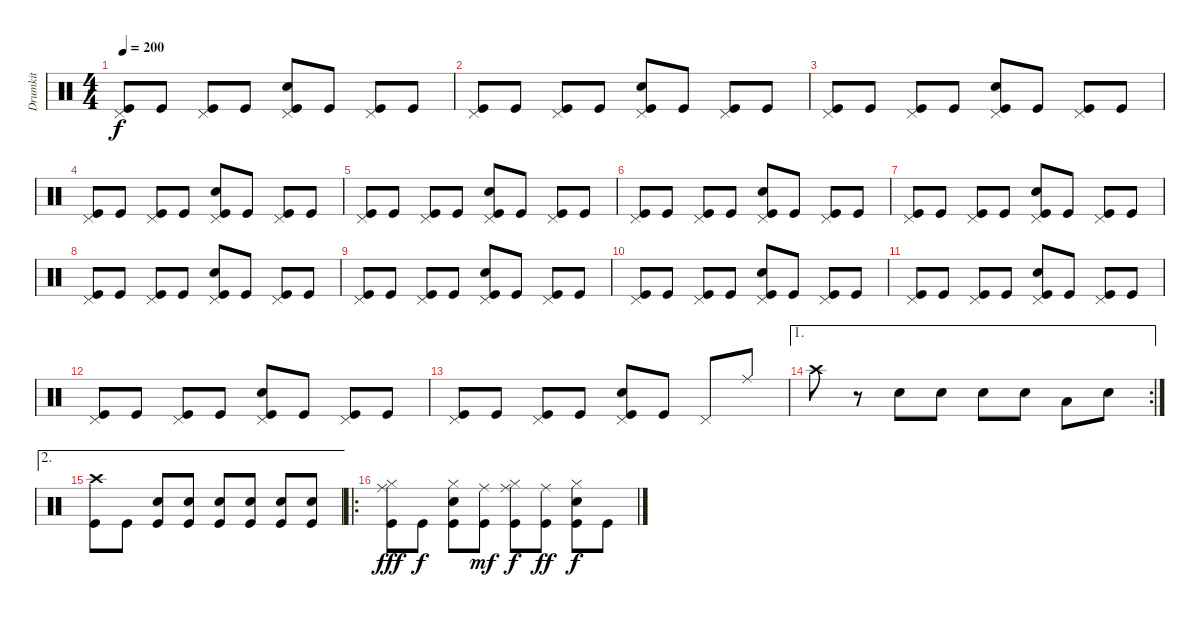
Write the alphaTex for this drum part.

\track ("Drumkit" "Drumkit") {instrument percussion}
\staff {score}
\articulation defaults
\ts (4 4)
\tempo 200
\clef neutral
\ks c
("Pedal Hi-Hat (hit)" "Kick (hit)").8{dy f} "Kick (hit)".8 ("Pedal Hi-Hat (hit)" "Kick (hit)").8 "Kick (hit)".8 ("Pedal Hi-Hat (hit)" "Snare (hit) 2" "Kick (hit)").8 "Kick (hit)".8 ("Pedal Hi-Hat (hit)" "Kick (hit)").8 "Kick (hit)".8 |
("Pedal Hi-Hat (hit)" "Kick (hit)").8 "Kick (hit)".8 ("Pedal Hi-Hat (hit)" "Kick (hit)").8 "Kick (hit)".8 ("Pedal Hi-Hat (hit)" "Snare (hit) 2" "Kick (hit)").8 "Kick (hit)".8 ("Pedal Hi-Hat (hit)" "Kick (hit)").8 "Kick (hit)".8 |
("Pedal Hi-Hat (hit)" "Kick (hit)").8 "Kick (hit)".8 ("Pedal Hi-Hat (hit)" "Kick (hit)").8 "Kick (hit)".8 ("Pedal Hi-Hat (hit)" "Snare (hit) 2" "Kick (hit)").8 "Kick (hit)".8 ("Pedal Hi-Hat (hit)" "Kick (hit)").8 "Kick (hit)".8 |
("Pedal Hi-Hat (hit)" "Kick (hit)").8 "Kick (hit)".8 ("Pedal Hi-Hat (hit)" "Kick (hit)").8 "Kick (hit)".8 ("Pedal Hi-Hat (hit)" "Snare (hit) 2" "Kick (hit)").8 "Kick (hit)".8 ("Pedal Hi-Hat (hit)" "Kick (hit)").8 "Kick (hit)".8 |
("Pedal Hi-Hat (hit)" "Kick (hit)").8 "Kick (hit)".8 ("Pedal Hi-Hat (hit)" "Kick (hit)").8 "Kick (hit)".8 ("Pedal Hi-Hat (hit)" "Snare (hit) 2" "Kick (hit)").8 "Kick (hit)".8 ("Pedal Hi-Hat (hit)" "Kick (hit)").8 "Kick (hit)".8 |
("Pedal Hi-Hat (hit)" "Kick (hit)").8 "Kick (hit)".8 ("Pedal Hi-Hat (hit)" "Kick (hit)").8 "Kick (hit)".8 ("Pedal Hi-Hat (hit)" "Snare (hit) 2" "Kick (hit)").8 "Kick (hit)".8 ("Pedal Hi-Hat (hit)" "Kick (hit)").8 "Kick (hit)".8 |
("Pedal Hi-Hat (hit)" "Kick (hit)").8 "Kick (hit)".8 ("Pedal Hi-Hat (hit)" "Kick (hit)").8 "Kick (hit)".8 ("Pedal Hi-Hat (hit)" "Snare (hit) 2" "Kick (hit)").8 "Kick (hit)".8 ("Pedal Hi-Hat (hit)" "Kick (hit)").8 "Kick (hit)".8 |
("Pedal Hi-Hat (hit)" "Kick (hit)").8 "Kick (hit)".8 ("Pedal Hi-Hat (hit)" "Kick (hit)").8 "Kick (hit)".8 ("Pedal Hi-Hat (hit)" "Snare (hit) 2" "Kick (hit)").8 "Kick (hit)".8 ("Pedal Hi-Hat (hit)" "Kick (hit)").8 "Kick (hit)".8 |
("Pedal Hi-Hat (hit)" "Kick (hit)").8 "Kick (hit)".8 ("Pedal Hi-Hat (hit)" "Kick (hit)").8 "Kick (hit)".8 ("Pedal Hi-Hat (hit)" "Snare (hit) 2" "Kick (hit)").8 "Kick (hit)".8 ("Pedal Hi-Hat (hit)" "Kick (hit)").8 "Kick (hit)".8 |
("Pedal Hi-Hat (hit)" "Kick (hit)").8 "Kick (hit)".8 ("Pedal Hi-Hat (hit)" "Kick (hit)").8 "Kick (hit)".8 ("Pedal Hi-Hat (hit)" "Snare (hit) 2" "Kick (hit)").8 "Kick (hit)".8 ("Pedal Hi-Hat (hit)" "Kick (hit)").8 "Kick (hit)".8 |
("Pedal Hi-Hat (hit)" "Kick (hit)").8 "Kick (hit)".8 ("Pedal Hi-Hat (hit)" "Kick (hit)").8 "Kick (hit)".8 ("Pedal Hi-Hat (hit)" "Snare (hit) 2" "Kick (hit)").8 "Kick (hit)".8 ("Pedal Hi-Hat (hit)" "Kick (hit)").8 "Kick (hit)".8 |
("Pedal Hi-Hat (hit)" "Kick (hit)").8 "Kick (hit)".8 ("Pedal Hi-Hat (hit)" "Kick (hit)").8 "Kick (hit)".8 ("Pedal Hi-Hat (hit)" "Snare (hit) 2" "Kick (hit)").8 "Kick (hit)".8 ("Pedal Hi-Hat (hit)" "Kick (hit)").8 "Kick (hit)".8 |
("Pedal Hi-Hat (hit)" "Kick (hit)").8 "Kick (hit)".8 ("Pedal Hi-Hat (hit)" "Kick (hit)").8 "Kick (hit)".8 ("Pedal Hi-Hat (hit)" "Snare (hit) 2" "Kick (hit)").8 "Kick (hit)".8 "Pedal Hi-Hat (hit)".8 "Ride (middle)".8 |
\ae 1
\rc 2 "Crash high (hit)".8
r.8 "Snare (hit) 2".8 "Snare (hit) 2".8 "Snare (hit) 2".8 "Snare (hit) 2".8 "Low Tom (hit)".8 "Snare (hit) 2".8 |
\ae 2
("Crash high (hit)" "Kick (hit)").8 "Kick (hit)".8 ("Snare (hit) 2" "Kick (hit)").8 ("Snare (hit) 2" "Kick (hit)").8 ("Snare (hit) 2" "Kick (hit)").8 ("Snare (hit) 2" "Kick (hit)").8 ("Snare (hit) 2" "Kick (hit)").8 ("Snare (hit) 2" "Kick (hit)").8 |
\ro
("Ride (middle)" "Hi-Hat (closed)" "Kick (hit)").8{dy fff} "Kick (hit)".8{dy f} ("Hi-Hat (closed)" "Snare (hit) 2" "Kick (hit)").8 ("Ride (middle)" "Kick (hit)").8{dy mf} ("Ride (middle)" "Hi-Hat (closed)" "Kick (hit)").8{dy f} ("Ride (middle)" "Kick (hit)").8{dy ff} ("Hi-Hat (closed)" "Snare (hit) 2" "Kick (hit)").8{dy f} "Kick (hit)".8
